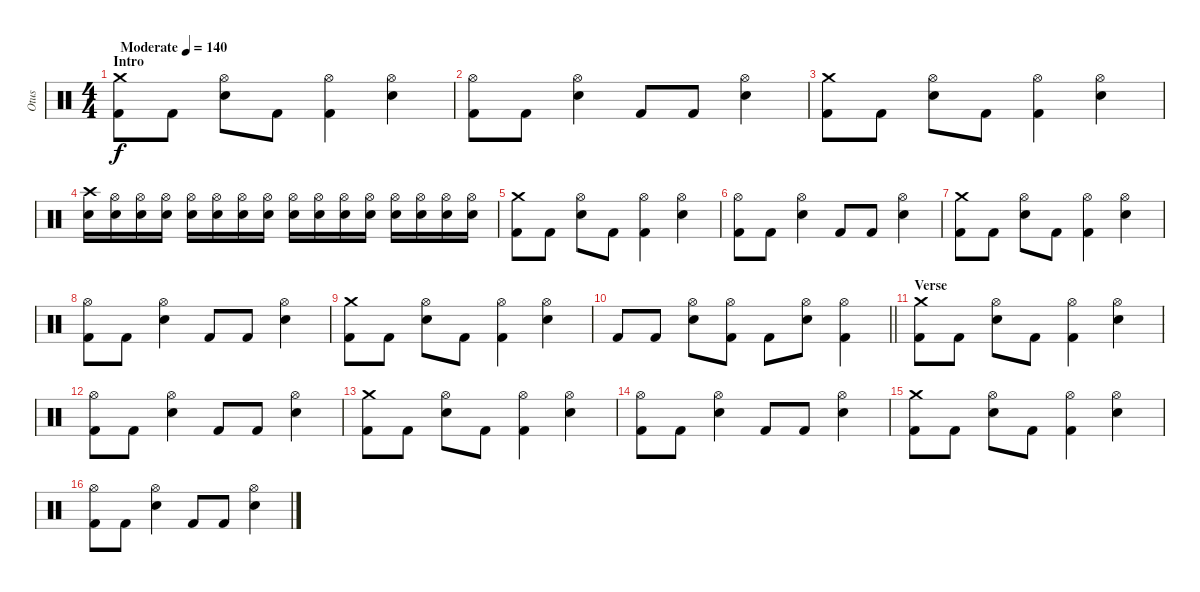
\track ("Otus" "Otus") {instrument percussion}
\staff {score}
\articulation defaults
\ts (4 4)
\section ("" "Intro")
\tempo (140 "Moderate")
\clef neutral
\ks c
("Crash medium (hit)" "Kick (hit) 2").8{dy f} "Kick (hit) 2".8 ("Hi-Hat (open)" "Electric Snare (hit)").8 "Kick (hit) 2".8 ("Hi-Hat (open)" "Kick (hit) 2").4 ("Hi-Hat (open)" "Electric Snare (hit)").4 |
("Hi-Hat (open)" "Kick (hit) 2").8 "Kick (hit) 2".8 ("Hi-Hat (open)" "Electric Snare (hit)").4 "Kick (hit) 2".8 "Kick (hit) 2".8 ("Hi-Hat (open)" "Electric Snare (hit)").4 |
("Crash medium (hit)" "Kick (hit) 2").8 "Kick (hit) 2".8 ("Hi-Hat (open)" "Electric Snare (hit)").8 "Kick (hit) 2".8 ("Hi-Hat (open)" "Kick (hit) 2").4 ("Hi-Hat (open)" "Electric Snare (hit)").4 |
("Crash high (hit)" "Electric Snare (hit)").16 ("Hi-Hat (open)" "Electric Snare (hit)").16 ("Hi-Hat (open)" "Electric Snare (hit)").16 ("Hi-Hat (open)" "Electric Snare (hit)").16 ("Hi-Hat (open)" "Electric Snare (hit)").16 ("Hi-Hat (open)" "Electric Snare (hit)").16 ("Hi-Hat (open)" "Electric Snare (hit)").16 ("Hi-Hat (open)" "Electric Snare (hit)").16 ("Hi-Hat (open)" "Electric Snare (hit)").16 ("Hi-Hat (open)" "Electric Snare (hit)").16 ("Hi-Hat (open)" "Electric Snare (hit)").16 ("Hi-Hat (open)" "Electric Snare (hit)").16 ("Hi-Hat (open)" "Electric Snare (hit)").16 ("Hi-Hat (open)" "Electric Snare (hit)").16 ("Hi-Hat (open)" "Electric Snare (hit)").16 ("Hi-Hat (open)" "Electric Snare (hit)").16 |
("Crash medium (hit)" "Kick (hit) 2").8 "Kick (hit) 2".8 ("Hi-Hat (open)" "Electric Snare (hit)").8 "Kick (hit) 2".8 ("Hi-Hat (open)" "Kick (hit) 2").4 ("Hi-Hat (open)" "Electric Snare (hit)").4 |
("Hi-Hat (open)" "Kick (hit) 2").8 "Kick (hit) 2".8 ("Hi-Hat (open)" "Electric Snare (hit)").4 "Kick (hit) 2".8 "Kick (hit) 2".8 ("Hi-Hat (open)" "Electric Snare (hit)").4 |
("Crash medium (hit)" "Kick (hit) 2").8 "Kick (hit) 2".8 ("Hi-Hat (open)" "Electric Snare (hit)").8 "Kick (hit) 2".8 ("Hi-Hat (open)" "Kick (hit) 2").4 ("Hi-Hat (open)" "Electric Snare (hit)").4 |
("Hi-Hat (open)" "Kick (hit) 2").8 "Kick (hit) 2".8 ("Hi-Hat (open)" "Electric Snare (hit)").4 "Kick (hit) 2".8 "Kick (hit) 2".8 ("Hi-Hat (open)" "Electric Snare (hit)").4 |
("Crash medium (hit)" "Kick (hit) 2").8 "Kick (hit) 2".8 ("Hi-Hat (open)" "Electric Snare (hit)").8 "Kick (hit) 2".8 ("Hi-Hat (open)" "Kick (hit) 2").4 ("Hi-Hat (open)" "Electric Snare (hit)").4 |
\barLineRight lightlight "Kick (hit) 2".8 "Kick (hit) 2".8
("Hi-Hat (open)" "Electric Snare (hit)").8 ("Hi-Hat (open)" "Kick (hit) 2").8 "Kick (hit) 2".8 ("Hi-Hat (open)" "Electric Snare (hit)").8 ("Hi-Hat (open)" "Kick (hit) 2").4 |
\section ("" "Verse")
("Crash medium (hit)" "Kick (hit) 2").8 "Kick (hit) 2".8 ("Hi-Hat (open)" "Electric Snare (hit)").8 "Kick (hit) 2".8 ("Hi-Hat (open)" "Kick (hit) 2").4 ("Hi-Hat (open)" "Electric Snare (hit)").4 |
("Hi-Hat (open)" "Kick (hit) 2").8 "Kick (hit) 2".8 ("Hi-Hat (open)" "Electric Snare (hit)").4 "Kick (hit) 2".8 "Kick (hit) 2".8 ("Hi-Hat (open)" "Electric Snare (hit)").4 |
("Crash medium (hit)" "Kick (hit) 2").8 "Kick (hit) 2".8 ("Hi-Hat (open)" "Electric Snare (hit)").8 "Kick (hit) 2".8 ("Hi-Hat (open)" "Kick (hit) 2").4 ("Hi-Hat (open)" "Electric Snare (hit)").4 |
("Hi-Hat (open)" "Kick (hit) 2").8 "Kick (hit) 2".8 ("Hi-Hat (open)" "Electric Snare (hit)").4 "Kick (hit) 2".8 "Kick (hit) 2".8 ("Hi-Hat (open)" "Electric Snare (hit)").4 |
("Crash medium (hit)" "Kick (hit) 2").8 "Kick (hit) 2".8 ("Hi-Hat (open)" "Electric Snare (hit)").8 "Kick (hit) 2".8 ("Hi-Hat (open)" "Kick (hit) 2").4 ("Hi-Hat (open)" "Electric Snare (hit)").4 |
("Hi-Hat (open)" "Kick (hit) 2").8 "Kick (hit) 2".8 ("Hi-Hat (open)" "Electric Snare (hit)").4 "Kick (hit) 2".8 "Kick (hit) 2".8 ("Hi-Hat (open)" "Electric Snare (hit)").4
